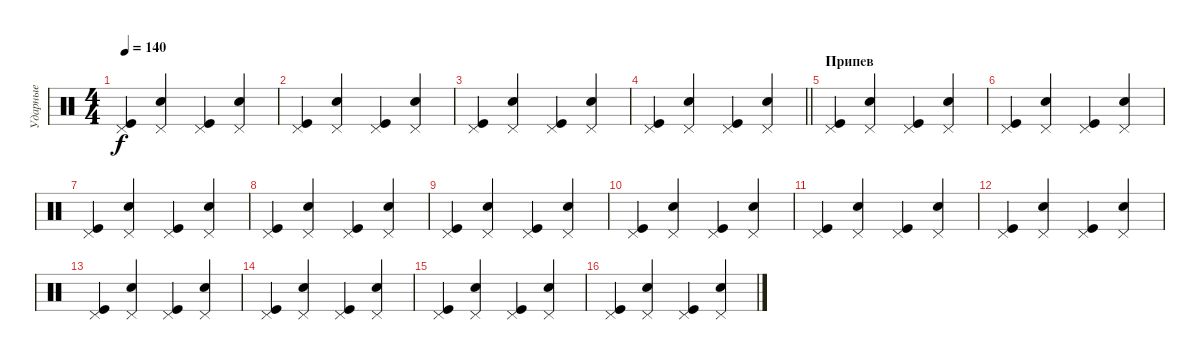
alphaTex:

\track ("Ударные" "Ударные") {instrument percussion}
\staff {score}
\articulation defaults
\ts (4 4)
\tempo 140
\clef neutral
\ks c
("Kick (hit)" "Pedal Hi-Hat (hit)").4{dy f} ("Electric Snare (hit)" "Pedal Hi-Hat (hit)").4 ("Kick (hit)" "Pedal Hi-Hat (hit)").4 ("Electric Snare (hit)" "Pedal Hi-Hat (hit)").4 |
("Kick (hit)" "Pedal Hi-Hat (hit)").4 ("Electric Snare (hit)" "Pedal Hi-Hat (hit)").4 ("Kick (hit)" "Pedal Hi-Hat (hit)").4 ("Electric Snare (hit)" "Pedal Hi-Hat (hit)").4 |
("Kick (hit)" "Pedal Hi-Hat (hit)").4 ("Electric Snare (hit)" "Pedal Hi-Hat (hit)").4 ("Kick (hit)" "Pedal Hi-Hat (hit)").4 ("Electric Snare (hit)" "Pedal Hi-Hat (hit)").4 |
\barLineRight lightlight
("Kick (hit)" "Pedal Hi-Hat (hit)").4 ("Electric Snare (hit)" "Pedal Hi-Hat (hit)").4 ("Kick (hit)" "Pedal Hi-Hat (hit)").4 ("Electric Snare (hit)" "Pedal Hi-Hat (hit)").4 |
\section ("" "Припев")
("Kick (hit)" "Pedal Hi-Hat (hit)").4 ("Electric Snare (hit)" "Pedal Hi-Hat (hit)").4 ("Kick (hit)" "Pedal Hi-Hat (hit)").4 ("Electric Snare (hit)" "Pedal Hi-Hat (hit)").4 |
("Kick (hit)" "Pedal Hi-Hat (hit)").4 ("Electric Snare (hit)" "Pedal Hi-Hat (hit)").4 ("Kick (hit)" "Pedal Hi-Hat (hit)").4 ("Electric Snare (hit)" "Pedal Hi-Hat (hit)").4 |
("Kick (hit)" "Pedal Hi-Hat (hit)").4 ("Electric Snare (hit)" "Pedal Hi-Hat (hit)").4 ("Kick (hit)" "Pedal Hi-Hat (hit)").4 ("Electric Snare (hit)" "Pedal Hi-Hat (hit)").4 |
("Kick (hit)" "Pedal Hi-Hat (hit)").4 ("Electric Snare (hit)" "Pedal Hi-Hat (hit)").4 ("Kick (hit)" "Pedal Hi-Hat (hit)").4 ("Electric Snare (hit)" "Pedal Hi-Hat (hit)").4 |
("Kick (hit)" "Pedal Hi-Hat (hit)").4 ("Electric Snare (hit)" "Pedal Hi-Hat (hit)").4 ("Kick (hit)" "Pedal Hi-Hat (hit)").4 ("Electric Snare (hit)" "Pedal Hi-Hat (hit)").4 |
("Kick (hit)" "Pedal Hi-Hat (hit)").4 ("Electric Snare (hit)" "Pedal Hi-Hat (hit)").4 ("Kick (hit)" "Pedal Hi-Hat (hit)").4 ("Electric Snare (hit)" "Pedal Hi-Hat (hit)").4 |
("Kick (hit)" "Pedal Hi-Hat (hit)").4 ("Electric Snare (hit)" "Pedal Hi-Hat (hit)").4 ("Kick (hit)" "Pedal Hi-Hat (hit)").4 ("Electric Snare (hit)" "Pedal Hi-Hat (hit)").4 |
("Kick (hit)" "Pedal Hi-Hat (hit)").4 ("Electric Snare (hit)" "Pedal Hi-Hat (hit)").4 ("Kick (hit)" "Pedal Hi-Hat (hit)").4 ("Electric Snare (hit)" "Pedal Hi-Hat (hit)").4 |
("Kick (hit)" "Pedal Hi-Hat (hit)").4 ("Electric Snare (hit)" "Pedal Hi-Hat (hit)").4 ("Kick (hit)" "Pedal Hi-Hat (hit)").4 ("Electric Snare (hit)" "Pedal Hi-Hat (hit)").4 |
("Kick (hit)" "Pedal Hi-Hat (hit)").4 ("Electric Snare (hit)" "Pedal Hi-Hat (hit)").4 ("Kick (hit)" "Pedal Hi-Hat (hit)").4 ("Electric Snare (hit)" "Pedal Hi-Hat (hit)").4 |
("Kick (hit)" "Pedal Hi-Hat (hit)").4 ("Electric Snare (hit)" "Pedal Hi-Hat (hit)").4 ("Kick (hit)" "Pedal Hi-Hat (hit)").4 ("Electric Snare (hit)" "Pedal Hi-Hat (hit)").4 |
("Kick (hit)" "Pedal Hi-Hat (hit)").4 ("Electric Snare (hit)" "Pedal Hi-Hat (hit)").4 ("Kick (hit)" "Pedal Hi-Hat (hit)").4 ("Electric Snare (hit)" "Pedal Hi-Hat (hit)").4
